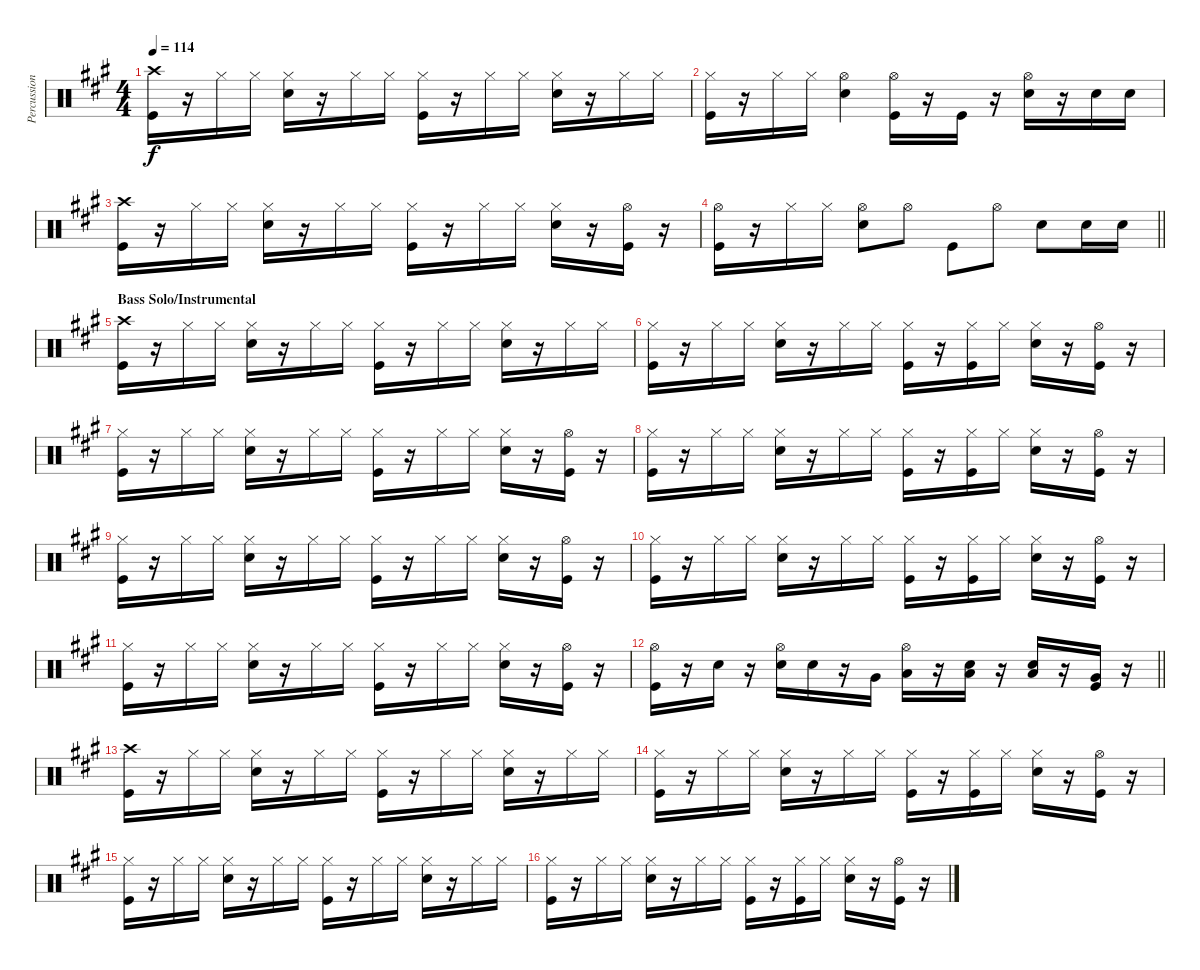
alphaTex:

\track ("Percussion" "Percussion") {instrument percussion}
\staff {score}
\articulation defaults
\ts (4 4)
\tempo 114
\clef neutral
\ks a
("Crash high (hit)" "Kick (hit)").16{dy f} r.16 "Hi-Hat (closed)".16 "Hi-Hat (closed)".16 ("Hi-Hat (closed)" "Snare (hit) 2").16 r.16 "Hi-Hat (closed)".16 "Hi-Hat (closed)".16 ("Hi-Hat (closed)" "Kick (hit)").16 r.16 "Hi-Hat (closed)".16 "Hi-Hat (closed)".16 ("Hi-Hat (closed)" "Snare (hit) 2").16 r.16 "Hi-Hat (closed)".16 "Hi-Hat (closed)".16 |
("Hi-Hat (closed)" "Kick (hit)").16 r.16 "Hi-Hat (closed)".16 "Hi-Hat (closed)".16 ("Hi-Hat (open)" "Snare (hit) 2").4 ("Hi-Hat (open)" "Kick (hit)").16 r.16 "Kick (hit)".16 r.16 ("Hi-Hat (open)" "Snare (hit) 2").16 r.16 "Snare (hit) 2".16 "Snare (hit) 2".16 |
("Crash high (hit)" "Kick (hit)").16 r.16 "Hi-Hat (closed)".16 "Hi-Hat (closed)".16 ("Hi-Hat (closed)" "Snare (hit) 2").16 r.16 "Hi-Hat (closed)".16 "Hi-Hat (closed)".16 ("Hi-Hat (closed)" "Kick (hit)").16 r.16 "Hi-Hat (closed)".16 "Hi-Hat (closed)".16 ("Hi-Hat (closed)" "Snare (hit) 2").16 r.16 ("Hi-Hat (open)" "Kick (hit)").16 r.16 |
\barLineRight lightlight
("Hi-Hat (open)" "Kick (hit)").16 r.16 "Hi-Hat (closed)".16 "Hi-Hat (closed)".16 ("Hi-Hat (open)" "Snare (hit) 2").8 "Hi-Hat (open)".8 "Kick (hit)".8 "Hi-Hat (open)".8 "Snare (hit) 2".8 "Snare (hit) 2".16 "Snare (hit) 2".16 |
\section ("" "Bass Solo/Instrumental")
("Crash high (hit)" "Kick (hit)").16 r.16 "Hi-Hat (closed)".16 "Hi-Hat (closed)".16 ("Hi-Hat (closed)" "Snare (hit) 2").16 r.16 "Hi-Hat (closed)".16 "Hi-Hat (closed)".16 ("Hi-Hat (closed)" "Kick (hit)").16 r.16 "Hi-Hat (closed)".16 "Hi-Hat (closed)".16 ("Hi-Hat (closed)" "Snare (hit) 2").16 r.16 "Hi-Hat (closed)".16 "Hi-Hat (closed)".16 |
("Hi-Hat (closed)" "Kick (hit)").16 r.16 "Hi-Hat (closed)".16 "Hi-Hat (closed)".16 ("Hi-Hat (closed)" "Snare (hit) 2").16 r.16 "Hi-Hat (closed)".16 "Hi-Hat (closed)".16 ("Hi-Hat (closed)" "Kick (hit)").16 r.16 ("Hi-Hat (closed)" "Kick (hit)").16 "Hi-Hat (closed)".16 ("Hi-Hat (closed)" "Snare (hit) 2").16 r.16 ("Hi-Hat (open)" "Kick (hit)").16 r.16 |
("Hi-Hat (closed)" "Kick (hit)").16 r.16 "Hi-Hat (closed)".16 "Hi-Hat (closed)".16 ("Hi-Hat (closed)" "Snare (hit) 2").16 r.16 "Hi-Hat (closed)".16 "Hi-Hat (closed)".16 ("Hi-Hat (closed)" "Kick (hit)").16 r.16 "Hi-Hat (closed)".16 "Hi-Hat (closed)".16 ("Hi-Hat (closed)" "Snare (hit) 2").16 r.16 ("Hi-Hat (open)" "Kick (hit)").16 r.16 |
("Hi-Hat (closed)" "Kick (hit)").16 r.16 "Hi-Hat (closed)".16 "Hi-Hat (closed)".16 ("Hi-Hat (closed)" "Snare (hit) 2").16 r.16 "Hi-Hat (closed)".16 "Hi-Hat (closed)".16 ("Hi-Hat (closed)" "Kick (hit)").16 r.16 ("Hi-Hat (closed)" "Kick (hit)").16 "Hi-Hat (closed)".16 ("Hi-Hat (closed)" "Snare (hit) 2").16 r.16 ("Hi-Hat (open)" "Kick (hit)").16 r.16 |
("Hi-Hat (closed)" "Kick (hit)").16 r.16 "Hi-Hat (closed)".16 "Hi-Hat (closed)".16 ("Hi-Hat (closed)" "Snare (hit) 2").16 r.16 "Hi-Hat (closed)".16 "Hi-Hat (closed)".16 ("Hi-Hat (closed)" "Kick (hit)").16 r.16 "Hi-Hat (closed)".16 "Hi-Hat (closed)".16 ("Hi-Hat (closed)" "Snare (hit) 2").16 r.16 ("Hi-Hat (open)" "Kick (hit)").16 r.16 |
("Hi-Hat (closed)" "Kick (hit)").16 r.16 "Hi-Hat (closed)".16 "Hi-Hat (closed)".16 ("Hi-Hat (closed)" "Snare (hit) 2").16 r.16 "Hi-Hat (closed)".16 "Hi-Hat (closed)".16 ("Hi-Hat (closed)" "Kick (hit)").16 r.16 ("Hi-Hat (closed)" "Kick (hit)").16 "Hi-Hat (closed)".16 ("Hi-Hat (closed)" "Snare (hit) 2").16 r.16 ("Hi-Hat (open)" "Kick (hit)").16 r.16 |
("Hi-Hat (closed)" "Kick (hit)").16 r.16 "Hi-Hat (closed)".16 "Hi-Hat (closed)".16 ("Hi-Hat (closed)" "Snare (hit) 2").16 r.16 "Hi-Hat (closed)".16 "Hi-Hat (closed)".16 ("Hi-Hat (closed)" "Kick (hit)").16 r.16 "Hi-Hat (closed)".16 "Hi-Hat (closed)".16 ("Hi-Hat (closed)" "Snare (hit) 2").16 r.16 ("Hi-Hat (open)" "Kick (hit)").16 r.16 |
\barLineRight lightlight
("Hi-Hat (open)" "Kick (hit)").16 r.16 "Snare (hit) 2".16 r.16 ("Hi-Hat (open)" "Snare (hit) 2").16 "Snare (hit) 2".16 r.16 "Very Low Tom (hit)".16 ("Hi-Hat (open)" "Low Tom (hit)").16 r.16 ("Low Tom (hit)" "Snare (hit) 2").16 r.16 ("Low Tom (hit)" "Snare (hit) 2").16 r.16 ("Very Low Tom (hit)" "Kick (hit)").16 r.16 |
("Crash high (hit)" "Kick (hit)").16 r.16 "Hi-Hat (closed)".16 "Hi-Hat (closed)".16 ("Hi-Hat (closed)" "Snare (hit) 2").16 r.16 "Hi-Hat (closed)".16 "Hi-Hat (closed)".16 ("Hi-Hat (closed)" "Kick (hit)").16 r.16 "Hi-Hat (closed)".16 "Hi-Hat (closed)".16 ("Hi-Hat (closed)" "Snare (hit) 2").16 r.16 "Hi-Hat (closed)".16 "Hi-Hat (closed)".16 |
("Hi-Hat (closed)" "Kick (hit)").16 r.16 "Hi-Hat (closed)".16 "Hi-Hat (closed)".16 ("Hi-Hat (closed)" "Snare (hit) 2").16 r.16 "Hi-Hat (closed)".16 "Hi-Hat (closed)".16 ("Hi-Hat (closed)" "Kick (hit)").16 r.16 ("Hi-Hat (closed)" "Kick (hit)").16 "Hi-Hat (closed)".16 ("Hi-Hat (closed)" "Snare (hit) 2").16 r.16 ("Hi-Hat (open)" "Kick (hit)").16 r.16 |
("Hi-Hat (closed)" "Kick (hit)").16 r.16 "Hi-Hat (closed)".16 "Hi-Hat (closed)".16 ("Hi-Hat (closed)" "Snare (hit) 2").16 r.16 "Hi-Hat (closed)".16 "Hi-Hat (closed)".16 ("Hi-Hat (closed)" "Kick (hit)").16 r.16 "Hi-Hat (closed)".16 "Hi-Hat (closed)".16 ("Hi-Hat (closed)" "Snare (hit) 2").16 r.16 "Hi-Hat (closed)".16 "Hi-Hat (closed)".16 |
("Hi-Hat (closed)" "Kick (hit)").16 r.16 "Hi-Hat (closed)".16 "Hi-Hat (closed)".16 ("Hi-Hat (closed)" "Snare (hit) 2").16 r.16 "Hi-Hat (closed)".16 "Hi-Hat (closed)".16 ("Hi-Hat (closed)" "Kick (hit)").16 r.16 ("Hi-Hat (closed)" "Kick (hit)").16 "Hi-Hat (closed)".16 ("Hi-Hat (closed)" "Snare (hit) 2").16 r.16 ("Hi-Hat (open)" "Kick (hit)").16 r.16
